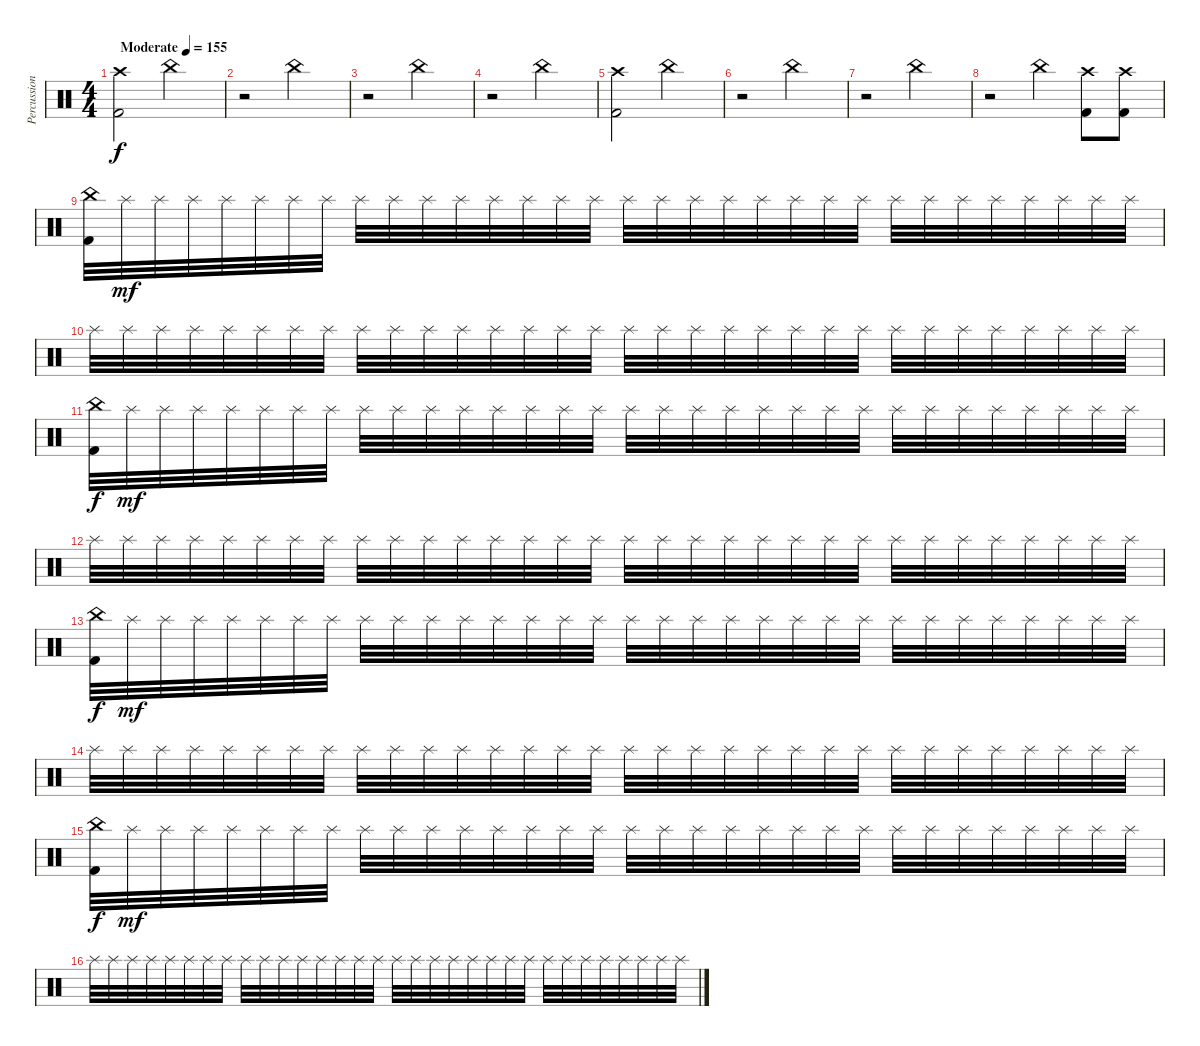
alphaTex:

\track ("Percussion" "Percussion") {instrument percussion}
\staff {score}
\articulation defaults
\ts (4 4)
\tempo (155 "Moderate")
\clef neutral
\ks c
("Crash high (hit)" "Kick (hit) 2").2{dy f} "China (hit)".2 |
r.2 "China (hit)".2 |
r.2 "China (hit)".2 |
r.2 "China (hit)".2 |
("Crash high (hit)" "Kick (hit) 2").2 "China (hit)".2 |
r.2 "China (hit)".2 |
r.2 "China (hit)".2 |
r.2 "China (hit)".4 ("Crash high (hit)" "Kick (hit) 2").8 ("Crash high (hit)" "Kick (hit) 2").8 |
("China (hit)" "Kick (hit) 2").32 "Splash (hit)".32{dy mf} "Splash (hit)".32 "Splash (hit)".32 "Splash (hit)".32 "Splash (hit)".32 "Splash (hit)".32 "Splash (hit)".32 "Splash (hit)".32 "Splash (hit)".32 "Splash (hit)".32 "Splash (hit)".32 "Splash (hit)".32 "Splash (hit)".32 "Splash (hit)".32 "Splash (hit)".32 "Splash (hit)".32 "Splash (hit)".32 "Splash (hit)".32 "Splash (hit)".32 "Splash (hit)".32 "Splash (hit)".32 "Splash (hit)".32 "Splash (hit)".32 "Splash (hit)".32 "Splash (hit)".32 "Splash (hit)".32 "Splash (hit)".32 "Splash (hit)".32 "Splash (hit)".32 "Splash (hit)".32 "Splash (hit)".32 |
"Splash (hit)".32 "Splash (hit)".32 "Splash (hit)".32 "Splash (hit)".32 "Splash (hit)".32 "Splash (hit)".32 "Splash (hit)".32 "Splash (hit)".32 "Splash (hit)".32 "Splash (hit)".32 "Splash (hit)".32 "Splash (hit)".32 "Splash (hit)".32 "Splash (hit)".32 "Splash (hit)".32 "Splash (hit)".32 "Splash (hit)".32 "Splash (hit)".32 "Splash (hit)".32 "Splash (hit)".32 "Splash (hit)".32 "Splash (hit)".32 "Splash (hit)".32 "Splash (hit)".32 "Splash (hit)".32 "Splash (hit)".32 "Splash (hit)".32 "Splash (hit)".32 "Splash (hit)".32 "Splash (hit)".32 "Splash (hit)".32 "Splash (hit)".32 |
("China (hit)" "Kick (hit) 2").32{dy f} "Splash (hit)".32{dy mf} "Splash (hit)".32 "Splash (hit)".32 "Splash (hit)".32 "Splash (hit)".32 "Splash (hit)".32 "Splash (hit)".32 "Splash (hit)".32 "Splash (hit)".32 "Splash (hit)".32 "Splash (hit)".32 "Splash (hit)".32 "Splash (hit)".32 "Splash (hit)".32 "Splash (hit)".32 "Splash (hit)".32 "Splash (hit)".32 "Splash (hit)".32 "Splash (hit)".32 "Splash (hit)".32 "Splash (hit)".32 "Splash (hit)".32 "Splash (hit)".32 "Splash (hit)".32 "Splash (hit)".32 "Splash (hit)".32 "Splash (hit)".32 "Splash (hit)".32 "Splash (hit)".32 "Splash (hit)".32 "Splash (hit)".32 |
"Splash (hit)".32 "Splash (hit)".32 "Splash (hit)".32 "Splash (hit)".32 "Splash (hit)".32 "Splash (hit)".32 "Splash (hit)".32 "Splash (hit)".32 "Splash (hit)".32 "Splash (hit)".32 "Splash (hit)".32 "Splash (hit)".32 "Splash (hit)".32 "Splash (hit)".32 "Splash (hit)".32 "Splash (hit)".32 "Splash (hit)".32 "Splash (hit)".32 "Splash (hit)".32 "Splash (hit)".32 "Splash (hit)".32 "Splash (hit)".32 "Splash (hit)".32 "Splash (hit)".32 "Splash (hit)".32 "Splash (hit)".32 "Splash (hit)".32 "Splash (hit)".32 "Splash (hit)".32 "Splash (hit)".32 "Splash (hit)".32 "Splash (hit)".32 |
("China (hit)" "Kick (hit) 2").32{dy f} "Splash (hit)".32{dy mf} "Splash (hit)".32 "Splash (hit)".32 "Splash (hit)".32 "Splash (hit)".32 "Splash (hit)".32 "Splash (hit)".32 "Splash (hit)".32 "Splash (hit)".32 "Splash (hit)".32 "Splash (hit)".32 "Splash (hit)".32 "Splash (hit)".32 "Splash (hit)".32 "Splash (hit)".32 "Splash (hit)".32 "Splash (hit)".32 "Splash (hit)".32 "Splash (hit)".32 "Splash (hit)".32 "Splash (hit)".32 "Splash (hit)".32 "Splash (hit)".32 "Splash (hit)".32 "Splash (hit)".32 "Splash (hit)".32 "Splash (hit)".32 "Splash (hit)".32 "Splash (hit)".32 "Splash (hit)".32 "Splash (hit)".32 |
"Splash (hit)".32 "Splash (hit)".32 "Splash (hit)".32 "Splash (hit)".32 "Splash (hit)".32 "Splash (hit)".32 "Splash (hit)".32 "Splash (hit)".32 "Splash (hit)".32 "Splash (hit)".32 "Splash (hit)".32 "Splash (hit)".32 "Splash (hit)".32 "Splash (hit)".32 "Splash (hit)".32 "Splash (hit)".32 "Splash (hit)".32 "Splash (hit)".32 "Splash (hit)".32 "Splash (hit)".32 "Splash (hit)".32 "Splash (hit)".32 "Splash (hit)".32 "Splash (hit)".32 "Splash (hit)".32 "Splash (hit)".32 "Splash (hit)".32 "Splash (hit)".32 "Splash (hit)".32 "Splash (hit)".32 "Splash (hit)".32 "Splash (hit)".32 |
("China (hit)" "Kick (hit) 2").32{dy f} "Splash (hit)".32{dy mf} "Splash (hit)".32 "Splash (hit)".32 "Splash (hit)".32 "Splash (hit)".32 "Splash (hit)".32 "Splash (hit)".32 "Splash (hit)".32 "Splash (hit)".32 "Splash (hit)".32 "Splash (hit)".32 "Splash (hit)".32 "Splash (hit)".32 "Splash (hit)".32 "Splash (hit)".32 "Splash (hit)".32 "Splash (hit)".32 "Splash (hit)".32 "Splash (hit)".32 "Splash (hit)".32 "Splash (hit)".32 "Splash (hit)".32 "Splash (hit)".32 "Splash (hit)".32 "Splash (hit)".32 "Splash (hit)".32 "Splash (hit)".32 "Splash (hit)".32 "Splash (hit)".32 "Splash (hit)".32 "Splash (hit)".32 |
"Splash (hit)".32 "Splash (hit)".32 "Splash (hit)".32 "Splash (hit)".32 "Splash (hit)".32 "Splash (hit)".32 "Splash (hit)".32 "Splash (hit)".32 "Splash (hit)".32 "Splash (hit)".32 "Splash (hit)".32 "Splash (hit)".32 "Splash (hit)".32 "Splash (hit)".32 "Splash (hit)".32 "Splash (hit)".32 "Splash (hit)".32 "Splash (hit)".32 "Splash (hit)".32 "Splash (hit)".32 "Splash (hit)".32 "Splash (hit)".32 "Splash (hit)".32 "Splash (hit)".32 "Splash (hit)".32 "Splash (hit)".32 "Splash (hit)".32 "Splash (hit)".32 "Splash (hit)".32 "Splash (hit)".32 "Splash (hit)".32 "Splash (hit)".32
